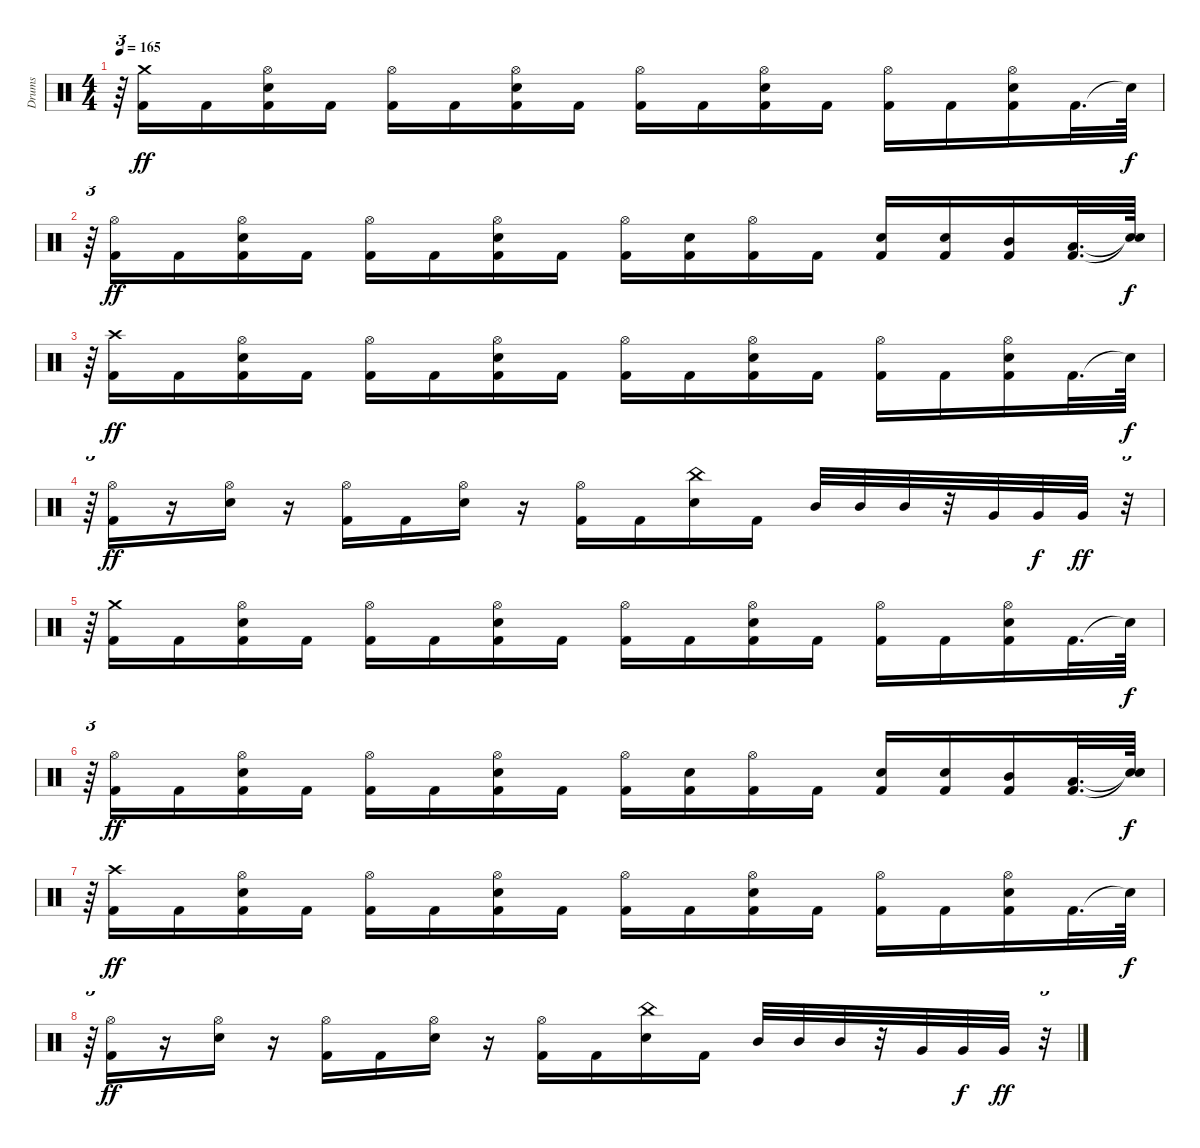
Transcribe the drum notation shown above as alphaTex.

\track ("Drums" "Drums") {instrument percussion}
\staff {score}
\articulation defaults
\ts (4 4)
\tempo 165
\clef neutral
\ks c
r.64{tu (3 2) dy ff} ("Kick (hit) 2" "Crash medium (hit)").16 "Kick (hit) 2".16 ("Kick (hit) 2" "Snare (hit) 2" "Hi-Hat (open)").16 "Kick (hit) 2".16 ("Kick (hit) 2" "Hi-Hat (open)").16 "Kick (hit) 2".16 ("Kick (hit) 2" "Snare (hit) 2" "Hi-Hat (open)").16 "Kick (hit) 2".16 ("Kick (hit) 2" "Hi-Hat (open)").16 "Kick (hit) 2".16 ("Kick (hit) 2" "Snare (hit) 2" "Hi-Hat (open)").16 "Kick (hit) 2".16 ("Kick (hit) 2" "Hi-Hat (open)").16 "Kick (hit) 2".16 ("Kick (hit) 2" "Snare (hit) 2" "Hi-Hat (open)").16 "Kick (hit) 2".32{d} "Snare (hit)"{t}.64{dy f} |
r.64{tu (3 2)} ("Kick (hit) 2" "Hi-Hat (open)").16{dy ff} "Kick (hit) 2".16 ("Kick (hit) 2" "Snare (hit) 2" "Hi-Hat (open)").16 "Kick (hit) 2".16 ("Kick (hit) 2" "Hi-Hat (open)").16 "Kick (hit) 2".16 ("Kick (hit) 2" "Snare (hit) 2" "Hi-Hat (open)").16 "Kick (hit) 2".16 ("Kick (hit) 2" "Hi-Hat (open)").16 ("Kick (hit) 2" "Snare (hit) 2").16 ("Kick (hit) 2" "Hi-Hat (open)").16 "Kick (hit) 2".16 ("Kick (hit) 2" "Snare (hit) 2").16 ("Kick (hit) 2" "Snare (hit) 2").16 ("Kick (hit) 2" "Mid Tom (hit)").16 ("Kick (hit) 2" "Low Tom (hit)").32{d} ("Snare (hit)"{t} "Snare (hit)"{t}).64{dy f} |
r.64{tu (3 2)} ("Kick (hit) 2" "Crash high (hit)").16{dy ff} "Kick (hit) 2".16 ("Kick (hit) 2" "Snare (hit) 2" "Hi-Hat (open)").16 "Kick (hit) 2".16 ("Kick (hit) 2" "Hi-Hat (open)").16 "Kick (hit) 2".16 ("Kick (hit) 2" "Snare (hit) 2" "Hi-Hat (open)").16 "Kick (hit) 2".16 ("Kick (hit) 2" "Hi-Hat (open)").16 "Kick (hit) 2".16 ("Kick (hit) 2" "Snare (hit) 2" "Hi-Hat (open)").16 "Kick (hit) 2".16 ("Kick (hit) 2" "Hi-Hat (open)").16 "Kick (hit) 2".16 ("Kick (hit) 2" "Snare (hit) 2" "Hi-Hat (open)").16 "Kick (hit) 2".32{d} "Snare (hit)"{t}.64{dy f} |
r.64{tu (3 2)} ("Kick (hit) 2" "Hi-Hat (open)").16{dy ff} r.16 ("Snare (hit) 2" "Hi-Hat (open)").16 r.16 ("Kick (hit) 2" "Hi-Hat (open)").16 "Kick (hit) 2".16 ("Snare (hit) 2" "Hi-Hat (open)").16 r.16 ("Kick (hit) 2" "Hi-Hat (open)").16 "Kick (hit) 2".16 ("Snare (hit) 2" "China (hit)").16 "Kick (hit) 2".16 "Mid Tom (hit)".32 "Mid Tom (hit)".32 "Mid Tom (hit)".32 r.32 "Very Low Tom (hit)".32 "Very Low Tom (hit)".32{dy f} "Very Low Tom (hit)".32{dy ff} r.32{tu (3 2)} |
r.64{tu (3 2)} ("Kick (hit) 2" "Crash medium (hit)").16 "Kick (hit) 2".16 ("Kick (hit) 2" "Snare (hit) 2" "Hi-Hat (open)").16 "Kick (hit) 2".16 ("Kick (hit) 2" "Hi-Hat (open)").16 "Kick (hit) 2".16 ("Kick (hit) 2" "Snare (hit) 2" "Hi-Hat (open)").16 "Kick (hit) 2".16 ("Kick (hit) 2" "Hi-Hat (open)").16 "Kick (hit) 2".16 ("Kick (hit) 2" "Snare (hit) 2" "Hi-Hat (open)").16 "Kick (hit) 2".16 ("Kick (hit) 2" "Hi-Hat (open)").16 "Kick (hit) 2".16 ("Kick (hit) 2" "Snare (hit) 2" "Hi-Hat (open)").16 "Kick (hit) 2".32{d} "Snare (hit)"{t}.64{dy f} |
r.64{tu (3 2)} ("Kick (hit) 2" "Hi-Hat (open)").16{dy ff} "Kick (hit) 2".16 ("Kick (hit) 2" "Snare (hit) 2" "Hi-Hat (open)").16 "Kick (hit) 2".16 ("Kick (hit) 2" "Hi-Hat (open)").16 "Kick (hit) 2".16 ("Kick (hit) 2" "Snare (hit) 2" "Hi-Hat (open)").16 "Kick (hit) 2".16 ("Kick (hit) 2" "Hi-Hat (open)").16 ("Kick (hit) 2" "Snare (hit) 2").16 ("Kick (hit) 2" "Hi-Hat (open)").16 "Kick (hit) 2".16 ("Kick (hit) 2" "Snare (hit) 2").16 ("Kick (hit) 2" "Snare (hit) 2").16 ("Kick (hit) 2" "Mid Tom (hit)").16 ("Kick (hit) 2" "Low Tom (hit)").32{d} ("Snare (hit)"{t} "Snare (hit)"{t}).64{dy f} |
r.64{tu (3 2)} ("Kick (hit) 2" "Crash high (hit)").16{dy ff} "Kick (hit) 2".16 ("Kick (hit) 2" "Snare (hit) 2" "Hi-Hat (open)").16 "Kick (hit) 2".16 ("Kick (hit) 2" "Hi-Hat (open)").16 "Kick (hit) 2".16 ("Kick (hit) 2" "Snare (hit) 2" "Hi-Hat (open)").16 "Kick (hit) 2".16 ("Kick (hit) 2" "Hi-Hat (open)").16 "Kick (hit) 2".16 ("Kick (hit) 2" "Snare (hit) 2" "Hi-Hat (open)").16 "Kick (hit) 2".16 ("Kick (hit) 2" "Hi-Hat (open)").16 "Kick (hit) 2".16 ("Kick (hit) 2" "Snare (hit) 2" "Hi-Hat (open)").16 "Kick (hit) 2".32{d} "Snare (hit)"{t}.64{dy f} |
r.64{tu (3 2)} ("Kick (hit) 2" "Hi-Hat (open)").16{dy ff} r.16 ("Snare (hit) 2" "Hi-Hat (open)").16 r.16 ("Kick (hit) 2" "Hi-Hat (open)").16 "Kick (hit) 2".16 ("Snare (hit) 2" "Hi-Hat (open)").16 r.16 ("Kick (hit) 2" "Hi-Hat (open)").16 "Kick (hit) 2".16 ("Snare (hit) 2" "China (hit)").16 "Kick (hit) 2".16 "Mid Tom (hit)".32 "Mid Tom (hit)".32 "Mid Tom (hit)".32 r.32 "Very Low Tom (hit)".32 "Very Low Tom (hit)".32{dy f} "Very Low Tom (hit)".32{dy ff} r.32{tu (3 2)}
